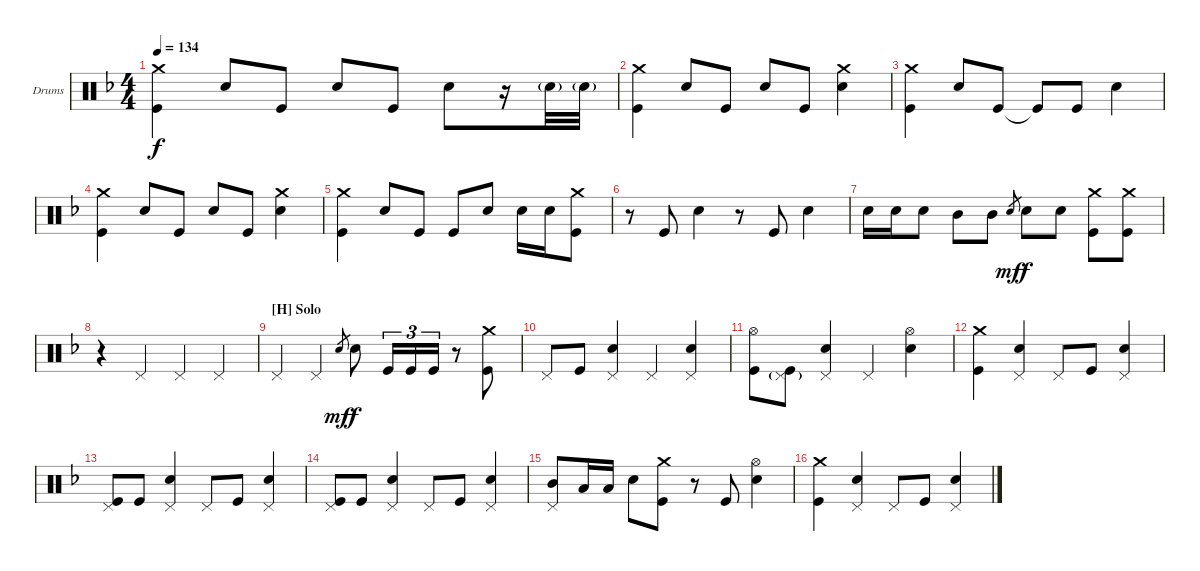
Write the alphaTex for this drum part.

\defaultSystemsLayout 4
\bracketExtendMode groupsimilarinstruments
\firstSystemTrackNameOrientation horizontal
\otherSystemsTrackNameOrientation horizontal
\track ("Carmine" "Drums") {instrument percussion}
\staff {score}
\articulation defaults
\ts (4 4)
\tempo 134
\clef neutral
\ks f
("Crash medium (hit)" "Kick (hit)").4{dy f} "Snare (hit) 2".8 "Kick (hit)".8 "Snare (hit) 2".8 "Kick (hit)".8 "Snare (hit) 2".8 r.16 "Snare (hit) 2"{g}.32 "Snare (hit) 2"{g}.32 |
("Crash medium (hit)" "Kick (hit)").4 "Snare (hit) 2".8 "Kick (hit)".8 "Snare (hit) 2".8 "Kick (hit)".8 ("Crash medium (hit)" "Snare (hit) 2").4 |
("Crash medium (hit)" "Kick (hit)").4 "Snare (hit) 2".8 "Kick (hit)".8 "Kick (hit)"{t}.8 "Kick (hit)".8 "Snare (hit) 2".4 |
("Crash medium (hit)" "Kick (hit)").4 "Snare (hit) 2".8 "Kick (hit)".8 "Snare (hit) 2".8 "Kick (hit)".8 ("Crash medium (hit)" "Snare (hit) 2").4 |
("Crash medium (hit)" "Kick (hit)").4 "Snare (hit) 2".8 "Kick (hit)".8 "Kick (hit)".8 "Snare (hit) 2".8 "Snare (hit) 2".16 "Snare (hit) 2".16 ("Crash medium (hit)" "Kick (hit)").8 |
r.8 "Kick (hit)".8 "Snare (hit) 2".4 r.8 "Kick (hit)".8 "Snare (hit) 2".4 |
"Snare (hit) 2".16 "Snare (hit) 2".16 "Snare (hit) 2".8 "Mid Tom (hit)".8 "Mid Tom (hit)".8 "Snare (hit) 2".8{gr dy mf} "Snare (hit) 2".8{dy f} "Snare (hit) 2".8 ("Crash medium (hit)" "Kick (hit)").8 ("Crash medium (hit)" "Kick (hit)").8 |
r.4 "Pedal Hi-Hat (hit)".4 "Pedal Hi-Hat (hit)".4 "Pedal Hi-Hat (hit)".4 |
\section ("H" "Solo")
"Pedal Hi-Hat (hit)".4 "Pedal Hi-Hat (hit)".4 "Snare (hit) 2".8{gr dy mf} "Snare (hit) 2".8{dy f} "Kick (hit)".16{tu (3 2)} "Kick (hit)".16{tu (3 2)} "Kick (hit)".16{tu (3 2)} r.8 ("Crash medium (hit)" "Kick (hit)").8 |
"Pedal Hi-Hat (hit)".8 "Kick (hit)".8 ("Pedal Hi-Hat (hit)" "Snare (hit) 2").4 "Pedal Hi-Hat (hit)".4 ("Pedal Hi-Hat (hit)" "Snare (hit) 2").4 |
("Hi-Hat (open)" "Kick (hit)").8 ("Pedal Hi-Hat (hit)"{g} "Kick (hit)").8 ("Pedal Hi-Hat (hit)" "Snare (hit) 2").4 "Pedal Hi-Hat (hit)".4 ("Hi-Hat (open)" "Snare (hit) 2").4 |
("Crash medium (hit)" "Kick (hit)").4 ("Pedal Hi-Hat (hit)" "Snare (hit) 2").4 "Pedal Hi-Hat (hit)".8 "Kick (hit)".8 ("Pedal Hi-Hat (hit)" "Snare (hit) 2").4 |
("Pedal Hi-Hat (hit)" "Kick (hit)").8 "Kick (hit)".8 ("Pedal Hi-Hat (hit)" "Snare (hit) 2").4 "Pedal Hi-Hat (hit)".8 "Kick (hit)".8 ("Pedal Hi-Hat (hit)" "Snare (hit) 2").4 |
("Pedal Hi-Hat (hit)" "Kick (hit)").8 "Kick (hit)".8 ("Pedal Hi-Hat (hit)" "Snare (hit) 2").4 "Pedal Hi-Hat (hit)".8 "Kick (hit)".8 ("Pedal Hi-Hat (hit)" "Snare (hit) 2").4 |
("Pedal Hi-Hat (hit)" "Mid Tom (hit)").8 "Low Tom (hit)".16 "Low Tom (hit)".16 "Snare (hit) 2".8 ("Crash medium (hit)" "Kick (hit)").8 r.8 "Kick (hit)".8 ("Hi-Hat (open)" "Snare (hit) 2").4 |
("Crash medium (hit)" "Kick (hit)").4 ("Pedal Hi-Hat (hit)" "Snare (hit) 2").4 "Pedal Hi-Hat (hit)".8 "Kick (hit)".8 ("Pedal Hi-Hat (hit)" "Snare (hit) 2").4
